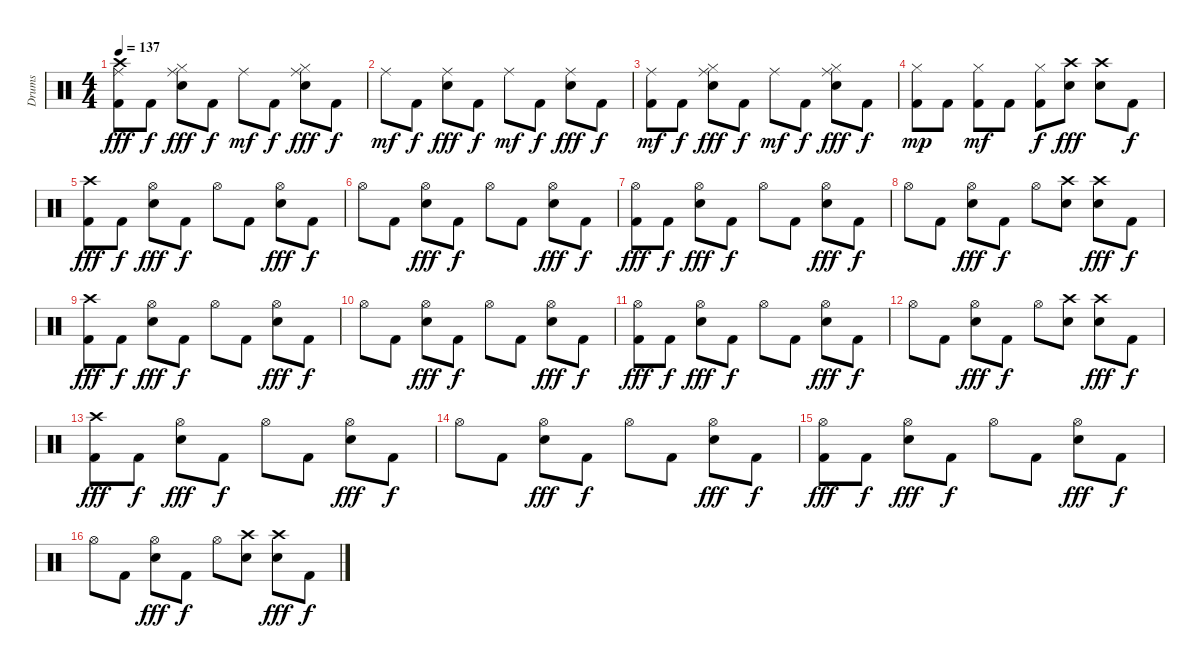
\track ("Drums" "Drums") {instrument percussion}
\staff {score}
\articulation defaults
\ts (4 4)
\tempo 137
\clef neutral
\ks c
("Crash high (hit)" "Ride (middle)" "Kick (hit) 2").8{dy fff volume 13} "Kick (hit) 2".8{dy f} ("Hi-Hat (closed)" "Ride (middle)" "Snare (hit) 2").8{dy fff} "Kick (hit) 2".8{dy f} "Ride (middle)".8{dy mf} "Kick (hit) 2".8{dy f} ("Hi-Hat (closed)" "Ride (middle)" "Snare (hit) 2").8{dy fff} "Kick (hit) 2".8{dy f} |
"Ride (middle)".8{dy mf} "Kick (hit) 2".8{dy f} ("Ride (middle)" "Snare (hit) 2").8{dy fff} "Kick (hit) 2".8{dy f} "Ride (middle)".8{dy mf} "Kick (hit) 2".8{dy f} ("Ride (middle)" "Snare (hit) 2").8{dy fff} "Kick (hit) 2".8{dy f} |
("Ride (middle)" "Kick (hit) 2").8{dy mf} "Kick (hit) 2".8{dy f} ("Hi-Hat (closed)" "Ride (middle)" "Snare (hit) 2").8{dy fff} "Kick (hit) 2".8{dy f} "Ride (middle)".8{dy mf} "Kick (hit) 2".8{dy f} ("Hi-Hat (closed)" "Ride (middle)" "Snare (hit) 2").8{dy fff} "Kick (hit) 2".8{dy f} |
("Hi-Hat (closed)" "Kick (hit) 2").8{dy mp} "Kick (hit) 2".8 ("Hi-Hat (closed)" "Kick (hit) 2").8{dy mf} "Kick (hit) 2".8 ("Hi-Hat (closed)" "Kick (hit) 2").8{dy f} ("Crash high (hit)" "Snare (hit) 2").8{dy fff volume 13} ("Crash high (hit)" "Snare (hit) 2").8 "Kick (hit) 2".8{dy f} |
("Crash high (hit)" "Kick (hit) 2").8{dy fff volume 13} "Kick (hit) 2".8{dy f} ("Hi-Hat (open)" "Snare (hit) 2").8{dy fff} "Kick (hit) 2".8{dy f} "Hi-Hat (open)".8 "Kick (hit) 2".8 ("Hi-Hat (open)" "Snare (hit) 2").8{dy fff} "Kick (hit) 2".8{dy f} |
"Hi-Hat (open)".8 "Kick (hit) 2".8 ("Hi-Hat (open)" "Snare (hit) 2").8{dy fff} "Kick (hit) 2".8{dy f} "Hi-Hat (open)".8 "Kick (hit) 2".8 ("Hi-Hat (open)" "Snare (hit) 2").8{dy fff} "Kick (hit) 2".8{dy f} |
("Hi-Hat (open)" "Kick (hit) 2").8{dy fff volume 13} "Kick (hit) 2".8{dy f} ("Hi-Hat (open)" "Snare (hit) 2").8{dy fff} "Kick (hit) 2".8{dy f} "Hi-Hat (open)".8 "Kick (hit) 2".8 ("Hi-Hat (open)" "Snare (hit) 2").8{dy fff} "Kick (hit) 2".8{dy f} |
"Hi-Hat (open)".8 "Kick (hit) 2".8 ("Hi-Hat (open)" "Snare (hit) 2").8{dy fff} "Kick (hit) 2".8{dy f} "Hi-Hat (open)".8 ("Crash high (hit)" "Snare (hit) 2").8 ("Crash high (hit)" "Snare (hit) 2").8{dy fff} "Kick (hit) 2".8{dy f} |
("Crash high (hit)" "Kick (hit) 2").8{dy fff volume 13} "Kick (hit) 2".8{dy f} ("Hi-Hat (open)" "Snare (hit) 2").8{dy fff} "Kick (hit) 2".8{dy f} "Hi-Hat (open)".8 "Kick (hit) 2".8 ("Hi-Hat (open)" "Snare (hit) 2").8{dy fff} "Kick (hit) 2".8{dy f} |
"Hi-Hat (open)".8 "Kick (hit) 2".8 ("Hi-Hat (open)" "Snare (hit) 2").8{dy fff} "Kick (hit) 2".8{dy f} "Hi-Hat (open)".8 "Kick (hit) 2".8 ("Hi-Hat (open)" "Snare (hit) 2").8{dy fff} "Kick (hit) 2".8{dy f} |
("Hi-Hat (open)" "Kick (hit) 2").8{dy fff volume 13} "Kick (hit) 2".8{dy f} ("Hi-Hat (open)" "Snare (hit) 2").8{dy fff} "Kick (hit) 2".8{dy f} "Hi-Hat (open)".8 "Kick (hit) 2".8 ("Hi-Hat (open)" "Snare (hit) 2").8{dy fff} "Kick (hit) 2".8{dy f} |
"Hi-Hat (open)".8 "Kick (hit) 2".8 ("Hi-Hat (open)" "Snare (hit) 2").8{dy fff} "Kick (hit) 2".8{dy f} "Hi-Hat (open)".8 ("Crash high (hit)" "Snare (hit) 2").8 ("Crash high (hit)" "Snare (hit) 2").8{dy fff} "Kick (hit) 2".8{dy f} |
("Crash high (hit)" "Kick (hit) 2").8{dy fff volume 13} "Kick (hit) 2".8{dy f} ("Hi-Hat (open)" "Snare (hit) 2").8{dy fff} "Kick (hit) 2".8{dy f} "Hi-Hat (open)".8 "Kick (hit) 2".8 ("Hi-Hat (open)" "Snare (hit) 2").8{dy fff} "Kick (hit) 2".8{dy f} |
"Hi-Hat (open)".8 "Kick (hit) 2".8 ("Hi-Hat (open)" "Snare (hit) 2").8{dy fff} "Kick (hit) 2".8{dy f} "Hi-Hat (open)".8 "Kick (hit) 2".8 ("Hi-Hat (open)" "Snare (hit) 2").8{dy fff} "Kick (hit) 2".8{dy f} |
("Hi-Hat (open)" "Kick (hit) 2").8{dy fff volume 13} "Kick (hit) 2".8{dy f} ("Hi-Hat (open)" "Snare (hit) 2").8{dy fff} "Kick (hit) 2".8{dy f} "Hi-Hat (open)".8 "Kick (hit) 2".8 ("Hi-Hat (open)" "Snare (hit) 2").8{dy fff} "Kick (hit) 2".8{dy f} |
"Hi-Hat (open)".8 "Kick (hit) 2".8 ("Hi-Hat (open)" "Snare (hit) 2").8{dy fff} "Kick (hit) 2".8{dy f} "Hi-Hat (open)".8 ("Crash high (hit)" "Snare (hit) 2").8 ("Crash high (hit)" "Snare (hit) 2").8{dy fff} "Kick (hit) 2".8{dy f}
